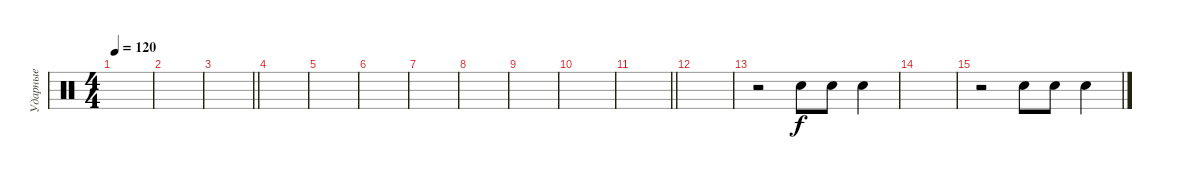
\track ("Ударные" "Ударные") {instrument percussion}
\staff {score}
\articulation defaults
\ts (4 4)
\tempo 120
\clef neutral
\ks c
|
|
\barLineRight lightlight
|
\section ("" "")
|
|
|
|
|
|
|
\barLineRight lightlight
|
\section ("" "")
|
r.2 "Hand Clap (hit)".8 "Hand Clap (hit)".8 "Hand Clap (hit)".4 |
|
r.2 "Hand Clap (hit)".8 "Hand Clap (hit)".8 "Hand Clap (hit)".4
